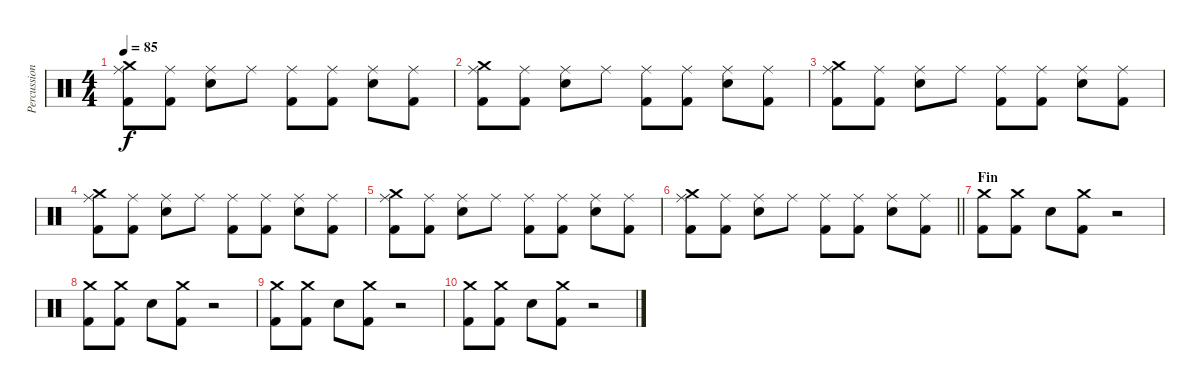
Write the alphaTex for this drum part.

\track ("Percussions" "Percussion") {instrument percussion}
\staff {score}
\articulation defaults
\ts (4 4)
\tempo 85
\clef neutral
\ks c
("Ride (middle)" "Crash medium (hit)" "Kick (hit) 2").8{dy f} ("Ride (middle)" "Kick (hit) 2").8 ("Ride (middle)" "Snare (hit) 2").8 "Ride (middle)".8 ("Ride (middle)" "Kick (hit) 2").8 ("Ride (middle)" "Kick (hit) 2").8 ("Ride (middle)" "Snare (hit) 2").8 ("Ride (middle)" "Kick (hit) 2").8 |
("Ride (middle)" "Crash medium (hit)" "Kick (hit) 2").8 ("Ride (middle)" "Kick (hit) 2").8 ("Ride (middle)" "Snare (hit) 2").8 "Ride (middle)".8 ("Ride (middle)" "Kick (hit) 2").8 ("Ride (middle)" "Kick (hit) 2").8 ("Ride (middle)" "Snare (hit) 2").8 ("Ride (middle)" "Kick (hit) 2").8 |
("Ride (middle)" "Crash medium (hit)" "Kick (hit) 2").8 ("Ride (middle)" "Kick (hit) 2").8 ("Ride (middle)" "Snare (hit) 2").8 "Ride (middle)".8 ("Ride (middle)" "Kick (hit) 2").8 ("Ride (middle)" "Kick (hit) 2").8 ("Ride (middle)" "Snare (hit) 2").8 ("Ride (middle)" "Kick (hit) 2").8 |
("Ride (middle)" "Crash medium (hit)" "Kick (hit) 2").8 ("Ride (middle)" "Kick (hit) 2").8 ("Ride (middle)" "Snare (hit) 2").8 "Ride (middle)".8 ("Ride (middle)" "Kick (hit) 2").8 ("Ride (middle)" "Kick (hit) 2").8 ("Ride (middle)" "Snare (hit) 2").8 ("Ride (middle)" "Kick (hit) 2").8 |
("Ride (middle)" "Crash medium (hit)" "Kick (hit) 2").8 ("Ride (middle)" "Kick (hit) 2").8 ("Ride (middle)" "Snare (hit) 2").8 "Ride (middle)".8 ("Ride (middle)" "Kick (hit) 2").8 ("Ride (middle)" "Kick (hit) 2").8 ("Ride (middle)" "Snare (hit) 2").8 ("Ride (middle)" "Kick (hit) 2").8 |
\barLineRight lightlight
("Ride (middle)" "Crash medium (hit)" "Kick (hit) 2").8 ("Ride (middle)" "Kick (hit) 2").8 ("Ride (middle)" "Snare (hit) 2").8 "Ride (middle)".8 ("Ride (middle)" "Kick (hit) 2").8 ("Ride (middle)" "Kick (hit) 2").8 ("Ride (middle)" "Snare (hit) 2").8 ("Ride (middle)" "Kick (hit) 2").8 |
\section ("" "Fin")
("Crash medium (hit)" "Kick (hit) 2").8 ("Crash medium (hit)" "Kick (hit) 2").8 "Snare (hit) 2".8 ("Crash medium (hit)" "Kick (hit) 2").8 r.2 |
("Crash medium (hit)" "Kick (hit) 2").8 ("Crash medium (hit)" "Kick (hit) 2").8 "Snare (hit) 2".8 ("Crash medium (hit)" "Kick (hit) 2").8 r.2 |
("Crash medium (hit)" "Kick (hit) 2").8 ("Crash medium (hit)" "Kick (hit) 2").8 "Snare (hit) 2".8 ("Crash medium (hit)" "Kick (hit) 2").8 r.2 |
("Crash medium (hit)" "Kick (hit) 2").8 ("Crash medium (hit)" "Kick (hit) 2").8 "Snare (hit) 2".8 ("Crash medium (hit)" "Kick (hit) 2").8 r.2
